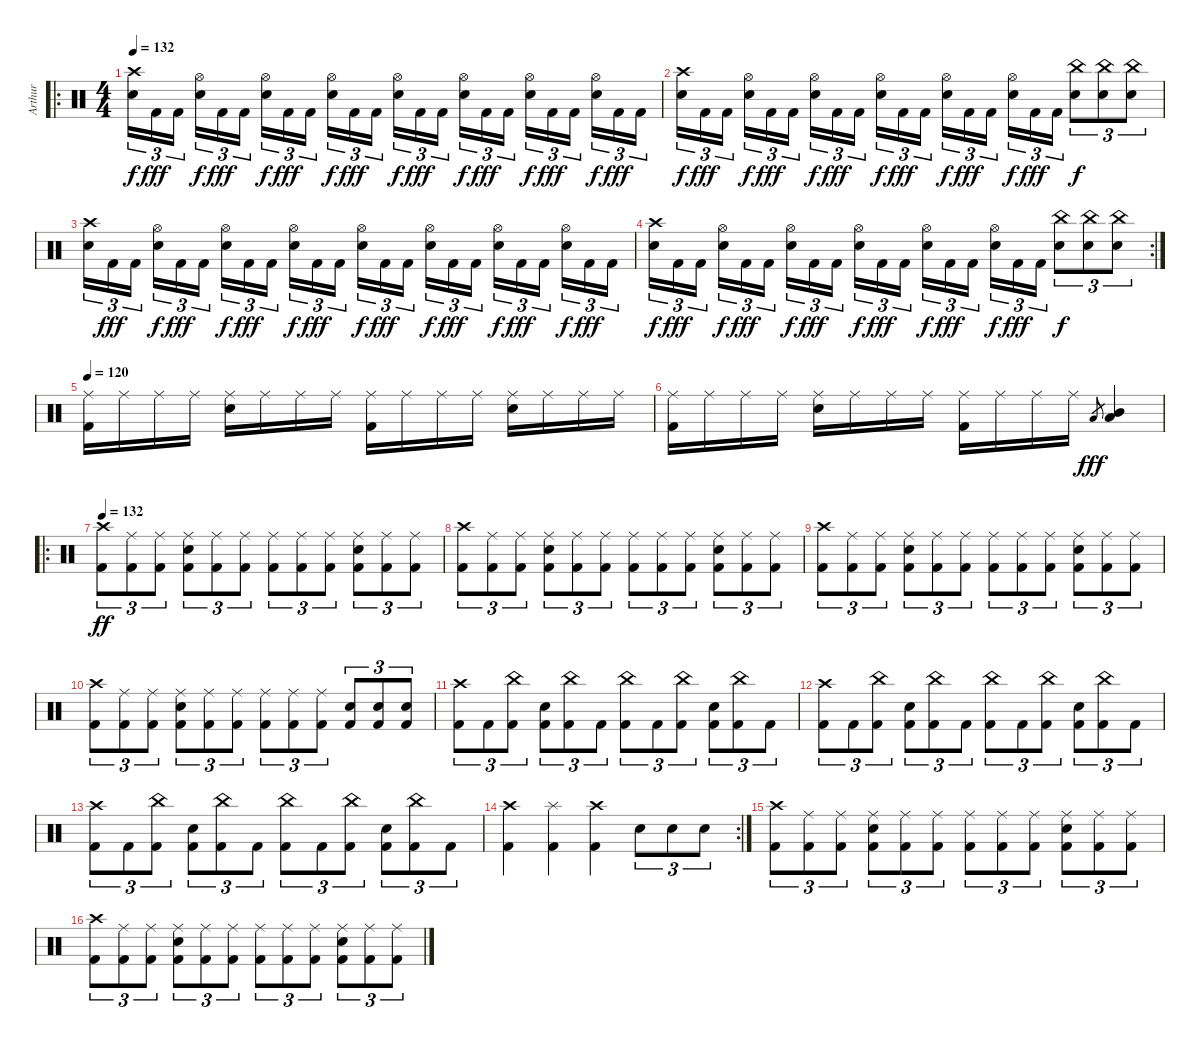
\track ("Arthur" "Arthur") {instrument percussion}
\staff {score}
\articulation defaults
\ro
\ts (4 4)
\tempo 132
\clef neutral
\ks c
("Crash high (hit)" "Electric Snare (hit)").16{tu (3 2) dy f} "Kick (hit) 2".16{tu (3 2) dy fff} "Kick (hit) 2".16{tu (3 2)} ("Hi-Hat (open)" "Electric Snare (hit)").16{tu (3 2) dy f} "Kick (hit) 2".16{tu (3 2) dy fff} "Kick (hit) 2".16{tu (3 2)} ("Hi-Hat (open)" "Electric Snare (hit)").16{tu (3 2) dy f} "Kick (hit) 2".16{tu (3 2) dy fff} "Kick (hit) 2".16{tu (3 2)} ("Hi-Hat (open)" "Electric Snare (hit)").16{tu (3 2) dy f} "Kick (hit) 2".16{tu (3 2) dy fff} "Kick (hit) 2".16{tu (3 2)} ("Hi-Hat (open)" "Electric Snare (hit)").16{tu (3 2) dy f} "Kick (hit) 2".16{tu (3 2) dy fff} "Kick (hit) 2".16{tu (3 2)} ("Hi-Hat (open)" "Electric Snare (hit)").16{tu (3 2) dy f} "Kick (hit) 2".16{tu (3 2) dy fff} "Kick (hit) 2".16{tu (3 2)} ("Hi-Hat (open)" "Electric Snare (hit)").16{tu (3 2) dy f} "Kick (hit) 2".16{tu (3 2) dy fff} "Kick (hit) 2".16{tu (3 2)} ("Hi-Hat (open)" "Electric Snare (hit)").16{tu (3 2) dy f} "Kick (hit) 2".16{tu (3 2) dy fff} "Kick (hit) 2".16{tu (3 2)} |
("Crash high (hit)" "Electric Snare (hit)").16{tu (3 2) dy f} "Kick (hit) 2".16{tu (3 2) dy fff} "Kick (hit) 2".16{tu (3 2)} ("Hi-Hat (open)" "Electric Snare (hit)").16{tu (3 2) dy f} "Kick (hit) 2".16{tu (3 2) dy fff} "Kick (hit) 2".16{tu (3 2)} ("Hi-Hat (open)" "Electric Snare (hit)").16{tu (3 2) dy f} "Kick (hit) 2".16{tu (3 2) dy fff} "Kick (hit) 2".16{tu (3 2)} ("Hi-Hat (open)" "Electric Snare (hit)").16{tu (3 2) dy f} "Kick (hit) 2".16{tu (3 2) dy fff} "Kick (hit) 2".16{tu (3 2)} ("Hi-Hat (open)" "Electric Snare (hit)").16{tu (3 2) dy f} "Kick (hit) 2".16{tu (3 2) dy fff} "Kick (hit) 2".16{tu (3 2)} ("Hi-Hat (open)" "Electric Snare (hit)").16{tu (3 2) dy f} "Kick (hit) 2".16{tu (3 2) dy fff} "Kick (hit) 2".16{tu (3 2)} ("China (hit)" "Electric Snare (hit)").8{tu (3 2) dy f} ("China (hit)" "Electric Snare (hit)").8{tu (3 2)} ("China (hit)" "Electric Snare (hit)").8{tu (3 2)} |
("Crash high (hit)" "Electric Snare (hit)").16{tu (3 2)} "Kick (hit) 2".16{tu (3 2) dy fff} "Kick (hit) 2".16{tu (3 2)} ("Hi-Hat (open)" "Electric Snare (hit)").16{tu (3 2) dy f} "Kick (hit) 2".16{tu (3 2) dy fff} "Kick (hit) 2".16{tu (3 2)} ("Hi-Hat (open)" "Electric Snare (hit)").16{tu (3 2) dy f} "Kick (hit) 2".16{tu (3 2) dy fff} "Kick (hit) 2".16{tu (3 2)} ("Hi-Hat (open)" "Electric Snare (hit)").16{tu (3 2) dy f} "Kick (hit) 2".16{tu (3 2) dy fff} "Kick (hit) 2".16{tu (3 2)} ("Hi-Hat (open)" "Electric Snare (hit)").16{tu (3 2) dy f} "Kick (hit) 2".16{tu (3 2) dy fff} "Kick (hit) 2".16{tu (3 2)} ("Hi-Hat (open)" "Electric Snare (hit)").16{tu (3 2) dy f} "Kick (hit) 2".16{tu (3 2) dy fff} "Kick (hit) 2".16{tu (3 2)} ("Hi-Hat (open)" "Electric Snare (hit)").16{tu (3 2) dy f} "Kick (hit) 2".16{tu (3 2) dy fff} "Kick (hit) 2".16{tu (3 2)} ("Hi-Hat (open)" "Electric Snare (hit)").16{tu (3 2) dy f} "Kick (hit) 2".16{tu (3 2) dy fff} "Kick (hit) 2".16{tu (3 2)} |
\rc 2
("Crash high (hit)" "Electric Snare (hit)").16{tu (3 2) dy f} "Kick (hit) 2".16{tu (3 2) dy fff} "Kick (hit) 2".16{tu (3 2)} ("Hi-Hat (open)" "Electric Snare (hit)").16{tu (3 2) dy f} "Kick (hit) 2".16{tu (3 2) dy fff} "Kick (hit) 2".16{tu (3 2)} ("Hi-Hat (open)" "Electric Snare (hit)").16{tu (3 2) dy f} "Kick (hit) 2".16{tu (3 2) dy fff} "Kick (hit) 2".16{tu (3 2)} ("Hi-Hat (open)" "Electric Snare (hit)").16{tu (3 2) dy f} "Kick (hit) 2".16{tu (3 2) dy fff} "Kick (hit) 2".16{tu (3 2)} ("Hi-Hat (open)" "Electric Snare (hit)").16{tu (3 2) dy f} "Kick (hit) 2".16{tu (3 2) dy fff} "Kick (hit) 2".16{tu (3 2)} ("Hi-Hat (open)" "Electric Snare (hit)").16{tu (3 2) dy f} "Kick (hit) 2".16{tu (3 2) dy fff} "Kick (hit) 2".16{tu (3 2)} ("China (hit)" "Electric Snare (hit)").8{tu (3 2) dy f} ("China (hit)" "Electric Snare (hit)").8{tu (3 2)} ("China (hit)" "Electric Snare (hit)").8{tu (3 2)} |
\tempo 120
("Ride (middle)" "Kick (hit) 2").16 "Ride (middle)".16 "Ride (middle)".16 "Ride (middle)".16 ("Ride (middle)" "Electric Snare (hit)").16 "Ride (middle)".16 "Ride (middle)".16 "Ride (middle)".16 ("Ride (middle)" "Kick (hit) 2").16 "Ride (middle)".16 "Ride (middle)".16 "Ride (middle)".16 ("Ride (middle)" "Electric Snare (hit)").16 "Ride (middle)".16 "Ride (middle)".16 "Ride (middle)".16 |
("Ride (middle)" "Kick (hit) 2").16 "Ride (middle)".16 "Ride (middle)".16 "Ride (middle)".16 ("Ride (middle)" "Electric Snare (hit)").16 "Ride (middle)".16 "Ride (middle)".16 "Ride (middle)".16 ("Ride (middle)" "Kick (hit) 2").16 "Ride (middle)".16 "Ride (middle)".16 "Ride (middle)".16 "Low Tom (hit)".8{gr dy fff} ("Mid Tom (hit)" "Low Tom (hit)").4 |
\ro
\tempo 132
("Crash high (hit)" "Kick (hit) 2").8{tu (3 2) dy ff} ("Ride (middle)" "Kick (hit) 2").8{tu (3 2)} ("Ride (middle)" "Kick (hit) 2").8{tu (3 2)} ("Ride (middle)" "Electric Snare (hit)" "Kick (hit) 2").8{tu (3 2)} ("Ride (middle)" "Kick (hit) 2").8{tu (3 2)} ("Ride (middle)" "Kick (hit) 2").8{tu (3 2)} ("Ride (middle)" "Kick (hit) 2").8{tu (3 2)} ("Ride (middle)" "Kick (hit) 2").8{tu (3 2)} ("Ride (middle)" "Kick (hit) 2").8{tu (3 2)} ("Ride (middle)" "Electric Snare (hit)" "Kick (hit) 2").8{tu (3 2)} ("Ride (middle)" "Kick (hit) 2").8{tu (3 2)} ("Ride (middle)" "Kick (hit) 2").8{tu (3 2)} |
("Crash high (hit)" "Kick (hit) 2").8{tu (3 2)} ("Ride (middle)" "Kick (hit) 2").8{tu (3 2)} ("Ride (middle)" "Kick (hit) 2").8{tu (3 2)} ("Ride (middle)" "Electric Snare (hit)" "Kick (hit) 2").8{tu (3 2)} ("Ride (middle)" "Kick (hit) 2").8{tu (3 2)} ("Ride (middle)" "Kick (hit) 2").8{tu (3 2)} ("Ride (middle)" "Kick (hit) 2").8{tu (3 2)} ("Ride (middle)" "Kick (hit) 2").8{tu (3 2)} ("Ride (middle)" "Kick (hit) 2").8{tu (3 2)} ("Ride (middle)" "Electric Snare (hit)" "Kick (hit) 2").8{tu (3 2)} ("Ride (middle)" "Kick (hit) 2").8{tu (3 2)} ("Ride (middle)" "Kick (hit) 2").8{tu (3 2)} |
("Crash high (hit)" "Kick (hit) 2").8{tu (3 2)} ("Ride (middle)" "Kick (hit) 2").8{tu (3 2)} ("Ride (middle)" "Kick (hit) 2").8{tu (3 2)} ("Ride (middle)" "Electric Snare (hit)" "Kick (hit) 2").8{tu (3 2)} ("Ride (middle)" "Kick (hit) 2").8{tu (3 2)} ("Ride (middle)" "Kick (hit) 2").8{tu (3 2)} ("Ride (middle)" "Kick (hit) 2").8{tu (3 2)} ("Ride (middle)" "Kick (hit) 2").8{tu (3 2)} ("Ride (middle)" "Kick (hit) 2").8{tu (3 2)} ("Ride (middle)" "Electric Snare (hit)" "Kick (hit) 2").8{tu (3 2)} ("Ride (middle)" "Kick (hit) 2").8{tu (3 2)} ("Ride (middle)" "Kick (hit) 2").8{tu (3 2)} |
("Crash high (hit)" "Kick (hit) 2").8{tu (3 2)} ("Ride (middle)" "Kick (hit) 2").8{tu (3 2)} ("Ride (middle)" "Kick (hit) 2").8{tu (3 2)} ("Ride (middle)" "Electric Snare (hit)" "Kick (hit) 2").8{tu (3 2)} ("Ride (middle)" "Kick (hit) 2").8{tu (3 2)} ("Ride (middle)" "Kick (hit) 2").8{tu (3 2)} ("Ride (middle)" "Kick (hit) 2").8{tu (3 2)} ("Ride (middle)" "Kick (hit) 2").8{tu (3 2)} ("Ride (middle)" "Kick (hit) 2").8{tu (3 2)} ("Electric Snare (hit)" "Kick (hit) 2").8{tu (3 2)} ("Electric Snare (hit)" "Kick (hit) 2").8{tu (3 2)} ("Electric Snare (hit)" "Kick (hit) 2").8{tu (3 2)} |
("Crash high (hit)" "Kick (hit) 2").8{tu (3 2)} "Kick (hit) 2".8{tu (3 2)} ("China (hit)" "Kick (hit) 2").8{tu (3 2)} ("Electric Snare (hit)" "Kick (hit) 2").8{tu (3 2)} ("China (hit)" "Kick (hit) 2").8{tu (3 2)} "Kick (hit) 2".8{tu (3 2)} ("China (hit)" "Kick (hit) 2").8{tu (3 2)} "Kick (hit) 2".8{tu (3 2)} ("China (hit)" "Kick (hit) 2").8{tu (3 2)} ("Electric Snare (hit)" "Kick (hit) 2").8{tu (3 2)} ("China (hit)" "Kick (hit) 2").8{tu (3 2)} "Kick (hit) 2".8{tu (3 2)} |
("Crash high (hit)" "Kick (hit) 2").8{tu (3 2)} "Kick (hit) 2".8{tu (3 2)} ("China (hit)" "Kick (hit) 2").8{tu (3 2)} ("Electric Snare (hit)" "Kick (hit) 2").8{tu (3 2)} ("China (hit)" "Kick (hit) 2").8{tu (3 2)} "Kick (hit) 2".8{tu (3 2)} ("China (hit)" "Kick (hit) 2").8{tu (3 2)} "Kick (hit) 2".8{tu (3 2)} ("China (hit)" "Kick (hit) 2").8{tu (3 2)} ("Electric Snare (hit)" "Kick (hit) 2").8{tu (3 2)} ("China (hit)" "Kick (hit) 2").8{tu (3 2)} "Kick (hit) 2".8{tu (3 2)} |
("Crash high (hit)" "Kick (hit) 2").8{tu (3 2)} "Kick (hit) 2".8{tu (3 2)} ("China (hit)" "Kick (hit) 2").8{tu (3 2)} ("Electric Snare (hit)" "Kick (hit) 2").8{tu (3 2)} ("China (hit)" "Kick (hit) 2").8{tu (3 2)} "Kick (hit) 2".8{tu (3 2)} ("China (hit)" "Kick (hit) 2").8{tu (3 2)} "Kick (hit) 2".8{tu (3 2)} ("China (hit)" "Kick (hit) 2").8{tu (3 2)} ("Electric Snare (hit)" "Kick (hit) 2").8{tu (3 2)} ("China (hit)" "Kick (hit) 2").8{tu (3 2)} "Kick (hit) 2".8{tu (3 2)} |
\rc 2
("Crash high (hit)" "Kick (hit) 2").4 ("Splash (hit)" "Kick (hit) 2").4 ("Crash high (hit)" "Kick (hit) 2").4 "Electric Snare (hit)".8{tu (3 2)} "Electric Snare (hit)".8{tu (3 2)} "Electric Snare (hit)".8{tu (3 2)} |
("Crash high (hit)" "Kick (hit) 2").8{tu (3 2)} ("Ride (middle)" "Kick (hit) 2").8{tu (3 2)} ("Ride (middle)" "Kick (hit) 2").8{tu (3 2)} ("Ride (middle)" "Electric Snare (hit)" "Kick (hit) 2").8{tu (3 2)} ("Ride (middle)" "Kick (hit) 2").8{tu (3 2)} ("Ride (middle)" "Kick (hit) 2").8{tu (3 2)} ("Ride (middle)" "Kick (hit) 2").8{tu (3 2)} ("Ride (middle)" "Kick (hit) 2").8{tu (3 2)} ("Ride (middle)" "Kick (hit) 2").8{tu (3 2)} ("Ride (middle)" "Electric Snare (hit)" "Kick (hit) 2").8{tu (3 2)} ("Ride (middle)" "Kick (hit) 2").8{tu (3 2)} ("Ride (middle)" "Kick (hit) 2").8{tu (3 2)} |
("Crash high (hit)" "Kick (hit) 2").8{tu (3 2)} ("Ride (middle)" "Kick (hit) 2").8{tu (3 2)} ("Ride (middle)" "Kick (hit) 2").8{tu (3 2)} ("Ride (middle)" "Electric Snare (hit)" "Kick (hit) 2").8{tu (3 2)} ("Ride (middle)" "Kick (hit) 2").8{tu (3 2)} ("Ride (middle)" "Kick (hit) 2").8{tu (3 2)} ("Ride (middle)" "Kick (hit) 2").8{tu (3 2)} ("Ride (middle)" "Kick (hit) 2").8{tu (3 2)} ("Ride (middle)" "Kick (hit) 2").8{tu (3 2)} ("Ride (middle)" "Electric Snare (hit)" "Kick (hit) 2").8{tu (3 2)} ("Ride (middle)" "Kick (hit) 2").8{tu (3 2)} ("Ride (middle)" "Kick (hit) 2").8{tu (3 2)}
